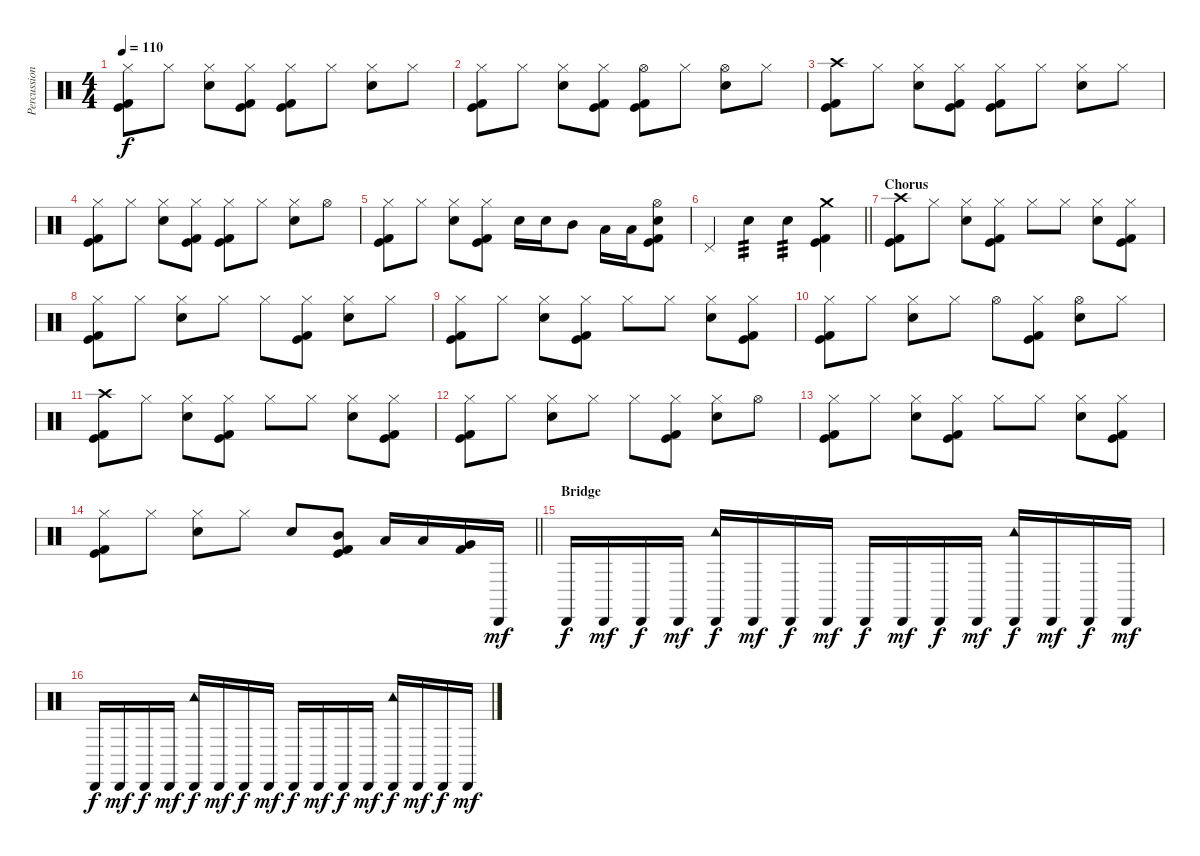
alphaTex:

\track ("Percussion" "Percussion") {instrument percussion}
\staff {score}
\articulation defaults
\ts (4 4)
\tempo 110
\clef neutral
\ks c
("Hi-Hat (closed)" "Kick (hit)" "Kick (hit) 2").8{dy f} "Hi-Hat (closed)".8 ("Hi-Hat (closed)" "Snare (hit) 2").8 ("Hi-Hat (closed)" "Kick (hit)" "Kick (hit) 2").8 ("Hi-Hat (closed)" "Kick (hit)" "Kick (hit) 2").8 "Hi-Hat (closed)".8 ("Hi-Hat (closed)" "Snare (hit) 2").8 "Hi-Hat (closed)".8 |
("Hi-Hat (closed)" "Kick (hit)" "Kick (hit) 2").8 "Hi-Hat (closed)".8 ("Hi-Hat (closed)" "Snare (hit) 2").8 ("Hi-Hat (closed)" "Kick (hit)" "Kick (hit) 2").8 ("Hi-Hat (open)" "Kick (hit)" "Kick (hit) 2").8 "Hi-Hat (closed)".8 ("Hi-Hat (open)" "Snare (hit) 2").8 "Hi-Hat (closed)".8 |
("Crash high (hit)" "Kick (hit)" "Kick (hit) 2").8 "Hi-Hat (closed)".8 ("Hi-Hat (closed)" "Snare (hit) 2").8 ("Hi-Hat (closed)" "Kick (hit)" "Kick (hit) 2").8 ("Hi-Hat (closed)" "Kick (hit)" "Kick (hit) 2").8 "Hi-Hat (closed)".8 ("Hi-Hat (closed)" "Snare (hit) 2").8 "Hi-Hat (closed)".8 |
("Hi-Hat (closed)" "Kick (hit)" "Kick (hit) 2").8 "Hi-Hat (closed)".8 ("Hi-Hat (closed)" "Snare (hit) 2").8 ("Hi-Hat (closed)" "Kick (hit)" "Kick (hit) 2").8 ("Hi-Hat (closed)" "Kick (hit)" "Kick (hit) 2").8 "Hi-Hat (closed)".8 ("Hi-Hat (closed)" "Snare (hit) 2").8 "Hi-Hat (open)".8 |
("Hi-Hat (closed)" "Kick (hit)" "Kick (hit) 2").8 "Hi-Hat (closed)".8 ("Hi-Hat (closed)" "Snare (hit) 2").8 ("Hi-Hat (closed)" "Kick (hit)" "Kick (hit) 2").8 "Snare (hit) 2".16 "Snare (hit) 2".16 "Mid Tom (hit)".8 "Low Tom (hit)".16 "Low Tom (hit)".16 ("Hi-Hat (open)" "Snare (hit) 2" "Kick (hit)" "Kick (hit) 2").8 |
\barLineRight lightlight "Pedal Hi-Hat (hit)".4 "Snare (hit) 2".4{tp 3} "Snare (hit) 2".4{tp 3}
("Crash medium (hit)" "Kick (hit)" "Kick (hit) 2").4 |
\section ("" "Chorus")
("Crash high (hit)" "Kick (hit)" "Kick (hit) 2").8 "Hi-Hat (closed)".8 ("Hi-Hat (closed)" "Snare (hit) 2").8 ("Hi-Hat (closed)" "Kick (hit)" "Kick (hit) 2").8 "Hi-Hat (closed)".8 "Hi-Hat (closed)".8 ("Hi-Hat (closed)" "Snare (hit) 2").8 ("Hi-Hat (closed)" "Kick (hit)" "Kick (hit) 2").8 |
("Hi-Hat (closed)" "Kick (hit)" "Kick (hit) 2").8 "Hi-Hat (closed)".8 ("Hi-Hat (closed)" "Snare (hit) 2").8 "Hi-Hat (closed)".8 "Hi-Hat (closed)".8 ("Hi-Hat (closed)" "Kick (hit)" "Kick (hit) 2").8 ("Hi-Hat (closed)" "Snare (hit) 2").8 "Hi-Hat (closed)".8 |
("Hi-Hat (closed)" "Kick (hit)" "Kick (hit) 2").8 "Hi-Hat (closed)".8 ("Hi-Hat (closed)" "Snare (hit) 2").8 ("Hi-Hat (closed)" "Kick (hit)" "Kick (hit) 2").8 "Hi-Hat (closed)".8 "Hi-Hat (closed)".8 ("Hi-Hat (closed)" "Snare (hit) 2").8 ("Hi-Hat (closed)" "Kick (hit)" "Kick (hit) 2").8 |
("Hi-Hat (closed)" "Kick (hit)" "Kick (hit) 2").8 "Hi-Hat (closed)".8 ("Hi-Hat (closed)" "Snare (hit) 2").8 "Hi-Hat (closed)".8 "Hi-Hat (open)".8 ("Hi-Hat (closed)" "Kick (hit)" "Kick (hit) 2").8 ("Hi-Hat (open)" "Snare (hit) 2").8 "Hi-Hat (closed)".8 |
("Crash high (hit)" "Kick (hit)" "Kick (hit) 2").8 "Hi-Hat (closed)".8 ("Hi-Hat (closed)" "Snare (hit) 2").8 ("Hi-Hat (closed)" "Kick (hit)" "Kick (hit) 2").8 "Hi-Hat (closed)".8 "Hi-Hat (closed)".8 ("Hi-Hat (closed)" "Snare (hit) 2").8 ("Hi-Hat (closed)" "Kick (hit)" "Kick (hit) 2").8 |
("Hi-Hat (closed)" "Kick (hit)" "Kick (hit) 2").8 "Hi-Hat (closed)".8 ("Hi-Hat (closed)" "Snare (hit) 2").8 "Hi-Hat (closed)".8 "Hi-Hat (closed)".8 ("Hi-Hat (closed)" "Kick (hit)" "Kick (hit) 2").8 ("Hi-Hat (closed)" "Snare (hit) 2").8 "Hi-Hat (open)".8 |
("Hi-Hat (closed)" "Kick (hit)" "Kick (hit) 2").8 "Hi-Hat (closed)".8 ("Hi-Hat (closed)" "Snare (hit) 2").8 ("Hi-Hat (closed)" "Kick (hit)" "Kick (hit) 2").8 "Hi-Hat (closed)".8 "Hi-Hat (closed)".8 ("Hi-Hat (closed)" "Snare (hit) 2").8 ("Hi-Hat (closed)" "Kick (hit)" "Kick (hit) 2").8 |
\barLineRight lightlight
("Hi-Hat (closed)" "Kick (hit)" "Kick (hit) 2").8 "Hi-Hat (closed)".8 ("Hi-Hat (closed)" "Snare (hit) 2").8 "Hi-Hat (closed)".8 "Snare (hit) 2".8 ("Mid Tom (hit)" "Kick (hit)" "Kick (hit) 2").8 "Low Tom (hit)".16 "Low Tom (hit)".16 ("Very Low Tom (hit)" "Kick (hit) 2").16 "Cabasa (hit)".16{dy mf volume 11} |
\section ("" "Bridge")
"Cabasa (hit)".16{dy f} "Cabasa (hit)".16{dy mf} "Cabasa (hit)".16{dy f} "Cabasa (hit)".16{dy mf} ("Cabasa (hit)" "Tambourine (hit)").16{dy f} "Cabasa (hit)".16{dy mf} "Cabasa (hit)".16{dy f} "Cabasa (hit)".16{dy mf} "Cabasa (hit)".16{dy f} "Cabasa (hit)".16{dy mf} "Cabasa (hit)".16{dy f} "Cabasa (hit)".16{dy mf} ("Cabasa (hit)" "Tambourine (hit)").16{dy f} "Cabasa (hit)".16{dy mf} "Cabasa (hit)".16{dy f} "Cabasa (hit)".16{dy mf} |
"Cabasa (hit)".16{dy f} "Cabasa (hit)".16{dy mf} "Cabasa (hit)".16{dy f} "Cabasa (hit)".16{dy mf} ("Cabasa (hit)" "Tambourine (hit)").16{dy f} "Cabasa (hit)".16{dy mf} "Cabasa (hit)".16{dy f} "Cabasa (hit)".16{dy mf} "Cabasa (hit)".16{dy f} "Cabasa (hit)".16{dy mf} "Cabasa (hit)".16{dy f} "Cabasa (hit)".16{dy mf} ("Cabasa (hit)" "Tambourine (hit)").16{dy f} "Cabasa (hit)".16{dy mf} "Cabasa (hit)".16{dy f} "Cabasa (hit)".16{dy mf}
